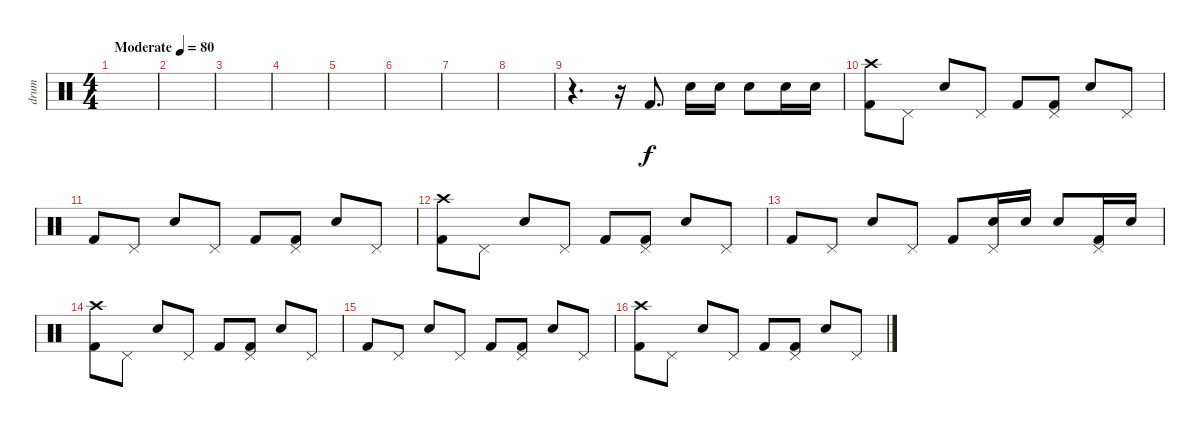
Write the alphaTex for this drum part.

\track ("drum" "drum") {instrument percussion}
\staff {score}
\articulation defaults
\ts (4 4)
\tempo (80 "Moderate")
\clef neutral
\ks c
|
|
|
|
|
|
|
|
r.4{d} r.16 "Kick (hit) 2".8{d} "Snare (hit) 2".16 "Snare (hit) 2".16 "Snare (hit) 2".8 "Snare (hit) 2".16 "Snare (hit) 2".16 |
("Crash high (hit)" "Kick (hit) 2").8 "Pedal Hi-Hat (hit)".8 "Snare (hit) 2".8 "Pedal Hi-Hat (hit)".8 "Kick (hit) 2".8 ("Pedal Hi-Hat (hit)" "Kick (hit) 2").8 "Snare (hit) 2".8 "Pedal Hi-Hat (hit)".8 |
"Kick (hit) 2".8 "Pedal Hi-Hat (hit)".8 "Snare (hit) 2".8 "Pedal Hi-Hat (hit)".8 "Kick (hit) 2".8 ("Pedal Hi-Hat (hit)" "Kick (hit) 2").8 "Snare (hit) 2".8 "Pedal Hi-Hat (hit)".8 |
("Crash high (hit)" "Kick (hit) 2").8 "Pedal Hi-Hat (hit)".8 "Snare (hit) 2".8 "Pedal Hi-Hat (hit)".8 "Kick (hit) 2".8 ("Pedal Hi-Hat (hit)" "Kick (hit) 2").8 "Snare (hit) 2".8 "Pedal Hi-Hat (hit)".8 |
"Kick (hit) 2".8 "Pedal Hi-Hat (hit)".8 "Snare (hit) 2".8 "Pedal Hi-Hat (hit)".8 "Kick (hit) 2".8 ("Pedal Hi-Hat (hit)" "Snare (hit) 2").16 "Snare (hit) 2".16 "Snare (hit) 2".8 ("Pedal Hi-Hat (hit)" "Kick (hit) 2").16 "Snare (hit) 2".16 |
("Crash high (hit)" "Kick (hit) 2").8 "Pedal Hi-Hat (hit)".8 "Snare (hit) 2".8 "Pedal Hi-Hat (hit)".8 "Kick (hit) 2".8 ("Pedal Hi-Hat (hit)" "Kick (hit) 2").8 "Snare (hit) 2".8 "Pedal Hi-Hat (hit)".8 |
"Kick (hit) 2".8 "Pedal Hi-Hat (hit)".8 "Snare (hit) 2".8 "Pedal Hi-Hat (hit)".8 "Kick (hit) 2".8 ("Pedal Hi-Hat (hit)" "Kick (hit) 2").8 "Snare (hit) 2".8 "Pedal Hi-Hat (hit)".8 |
("Crash high (hit)" "Kick (hit) 2").8 "Pedal Hi-Hat (hit)".8 "Snare (hit) 2".8 "Pedal Hi-Hat (hit)".8 "Kick (hit) 2".8 ("Pedal Hi-Hat (hit)" "Kick (hit) 2").8 "Snare (hit) 2".8 "Pedal Hi-Hat (hit)".8
